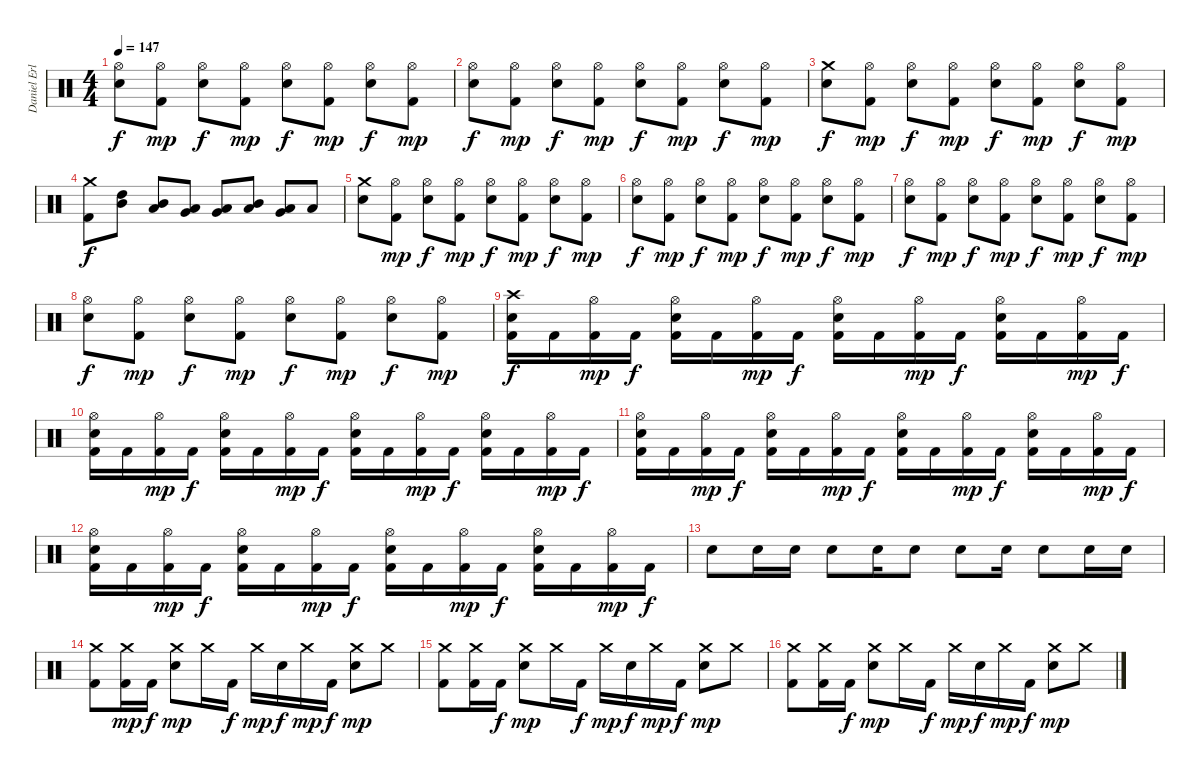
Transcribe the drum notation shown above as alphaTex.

\track ("Daniel Erlandsson" "Daniel Erl") {instrument percussion}
\staff {score}
\articulation defaults
\ts (4 4)
\tempo 147
\clef neutral
\ks c
("Hi-Hat (open)" "Electric Snare (hit)").8{dy f} ("Hi-Hat (open)" "Kick (hit) 2").8{dy mp} ("Hi-Hat (open)" "Electric Snare (hit)").8{dy f} ("Hi-Hat (open)" "Kick (hit) 2").8{dy mp} ("Hi-Hat (open)" "Electric Snare (hit)").8{dy f} ("Hi-Hat (open)" "Kick (hit) 2").8{dy mp} ("Hi-Hat (open)" "Electric Snare (hit)").8{dy f} ("Hi-Hat (open)" "Kick (hit) 2").8{dy mp} |
("Hi-Hat (open)" "Electric Snare (hit)").8{dy f} ("Hi-Hat (open)" "Kick (hit) 2").8{dy mp} ("Hi-Hat (open)" "Electric Snare (hit)").8{dy f} ("Hi-Hat (open)" "Kick (hit) 2").8{dy mp} ("Hi-Hat (open)" "Electric Snare (hit)").8{dy f} ("Hi-Hat (open)" "Kick (hit) 2").8{dy mp} ("Hi-Hat (open)" "Electric Snare (hit)").8{dy f} ("Hi-Hat (open)" "Kick (hit) 2").8{dy mp} |
("Crash medium (hit)" "Electric Snare (hit)").8{dy f} ("Hi-Hat (open)" "Kick (hit) 2").8{dy mp} ("Hi-Hat (open)" "Electric Snare (hit)").8{dy f} ("Hi-Hat (open)" "Kick (hit) 2").8{dy mp} ("Hi-Hat (open)" "Electric Snare (hit)").8{dy f} ("Hi-Hat (open)" "Kick (hit) 2").8{dy mp} ("Hi-Hat (open)" "Electric Snare (hit)").8{dy f} ("Hi-Hat (open)" "Kick (hit) 2").8{dy mp} |
("Crash medium (hit)" "Kick (hit) 2").8{dy f} ("High Tom (hit)" "Mid Tom (hit)").8 ("Mid Tom (hit)" "Low Tom (hit)").8 ("Low Tom (hit)" "Very Low Tom (hit)").8 ("Very Low Tom (hit)" "Low Floor Tom (hit)").8 ("Mid Tom (hit)" "Low Tom (hit)").8 ("Low Tom (hit)" "Very Low Tom (hit)").8 "Low Floor Tom (hit)".8 |
("Crash medium (hit)" "Electric Snare (hit)").8 ("Hi-Hat (open)" "Kick (hit) 2").8{dy mp} ("Hi-Hat (open)" "Electric Snare (hit)").8{dy f} ("Hi-Hat (open)" "Kick (hit) 2").8{dy mp} ("Hi-Hat (open)" "Electric Snare (hit)").8{dy f} ("Hi-Hat (open)" "Kick (hit) 2").8{dy mp} ("Hi-Hat (open)" "Electric Snare (hit)").8{dy f} ("Hi-Hat (open)" "Kick (hit) 2").8{dy mp} |
("Hi-Hat (open)" "Electric Snare (hit)").8{dy f} ("Hi-Hat (open)" "Kick (hit) 2").8{dy mp} ("Hi-Hat (open)" "Electric Snare (hit)").8{dy f} ("Hi-Hat (open)" "Kick (hit) 2").8{dy mp} ("Hi-Hat (open)" "Electric Snare (hit)").8{dy f} ("Hi-Hat (open)" "Kick (hit) 2").8{dy mp} ("Hi-Hat (open)" "Electric Snare (hit)").8{dy f} ("Hi-Hat (open)" "Kick (hit) 2").8{dy mp} |
("Hi-Hat (open)" "Electric Snare (hit)").8{dy f} ("Hi-Hat (open)" "Kick (hit) 2").8{dy mp} ("Hi-Hat (open)" "Electric Snare (hit)").8{dy f} ("Hi-Hat (open)" "Kick (hit) 2").8{dy mp} ("Hi-Hat (open)" "Electric Snare (hit)").8{dy f} ("Hi-Hat (open)" "Kick (hit) 2").8{dy mp} ("Hi-Hat (open)" "Electric Snare (hit)").8{dy f} ("Hi-Hat (open)" "Kick (hit) 2").8{dy mp} |
("Hi-Hat (open)" "Electric Snare (hit)").8{dy f} ("Hi-Hat (open)" "Kick (hit) 2").8{dy mp} ("Hi-Hat (open)" "Electric Snare (hit)").8{dy f} ("Hi-Hat (open)" "Kick (hit) 2").8{dy mp} ("Hi-Hat (open)" "Electric Snare (hit)").8{dy f} ("Hi-Hat (open)" "Kick (hit) 2").8{dy mp} ("Hi-Hat (open)" "Electric Snare (hit)").8{dy f} ("Hi-Hat (open)" "Kick (hit) 2").8{dy mp} |
("Crash high (hit)" "Electric Snare (hit)" "Kick (hit) 2").16{dy f} "Kick (hit) 2".16 ("Hi-Hat (open)" "Kick (hit) 2").16{dy mp} "Kick (hit) 2".16{dy f} ("Hi-Hat (open)" "Electric Snare (hit)" "Kick (hit) 2").16 "Kick (hit) 2".16 ("Hi-Hat (open)" "Kick (hit) 2").16{dy mp} "Kick (hit) 2".16{dy f} ("Hi-Hat (open)" "Electric Snare (hit)" "Kick (hit) 2").16 "Kick (hit) 2".16 ("Hi-Hat (open)" "Kick (hit) 2").16{dy mp} "Kick (hit) 2".16{dy f} ("Hi-Hat (open)" "Electric Snare (hit)" "Kick (hit) 2").16 "Kick (hit) 2".16 ("Hi-Hat (open)" "Kick (hit) 2").16{dy mp} "Kick (hit) 2".16{dy f} |
("Hi-Hat (open)" "Electric Snare (hit)" "Kick (hit) 2").16 "Kick (hit) 2".16 ("Hi-Hat (open)" "Kick (hit) 2").16{dy mp} "Kick (hit) 2".16{dy f} ("Hi-Hat (open)" "Electric Snare (hit)" "Kick (hit) 2").16 "Kick (hit) 2".16 ("Hi-Hat (open)" "Kick (hit) 2").16{dy mp} "Kick (hit) 2".16{dy f} ("Hi-Hat (open)" "Electric Snare (hit)" "Kick (hit) 2").16 "Kick (hit) 2".16 ("Hi-Hat (open)" "Kick (hit) 2").16{dy mp} "Kick (hit) 2".16{dy f} ("Hi-Hat (open)" "Electric Snare (hit)" "Kick (hit) 2").16 "Kick (hit) 2".16 ("Hi-Hat (open)" "Kick (hit) 2").16{dy mp} "Kick (hit) 2".16{dy f} |
("Hi-Hat (open)" "Electric Snare (hit)" "Kick (hit) 2").16 "Kick (hit) 2".16 ("Hi-Hat (open)" "Kick (hit) 2").16{dy mp} "Kick (hit) 2".16{dy f} ("Hi-Hat (open)" "Electric Snare (hit)" "Kick (hit) 2").16 "Kick (hit) 2".16 ("Hi-Hat (open)" "Kick (hit) 2").16{dy mp} "Kick (hit) 2".16{dy f} ("Hi-Hat (open)" "Electric Snare (hit)" "Kick (hit) 2").16 "Kick (hit) 2".16 ("Hi-Hat (open)" "Kick (hit) 2").16{dy mp} "Kick (hit) 2".16{dy f} ("Hi-Hat (open)" "Electric Snare (hit)" "Kick (hit) 2").16 "Kick (hit) 2".16 ("Hi-Hat (open)" "Kick (hit) 2").16{dy mp} "Kick (hit) 2".16{dy f} |
("Hi-Hat (open)" "Electric Snare (hit)" "Kick (hit) 2").16 "Kick (hit) 2".16 ("Hi-Hat (open)" "Kick (hit) 2").16{dy mp} "Kick (hit) 2".16{dy f} ("Hi-Hat (open)" "Electric Snare (hit)" "Kick (hit) 2").16 "Kick (hit) 2".16 ("Hi-Hat (open)" "Kick (hit) 2").16{dy mp} "Kick (hit) 2".16{dy f} ("Hi-Hat (open)" "Electric Snare (hit)" "Kick (hit) 2").16 "Kick (hit) 2".16 ("Hi-Hat (open)" "Kick (hit) 2").16{dy mp} "Kick (hit) 2".16{dy f} ("Hi-Hat (open)" "Electric Snare (hit)" "Kick (hit) 2").16 "Kick (hit) 2".16 ("Hi-Hat (open)" "Kick (hit) 2").16{dy mp} "Kick (hit) 2".16{dy f} |
"Electric Snare (hit)".8 "Electric Snare (hit)".16 "Electric Snare (hit)".16 "Electric Snare (hit)".8 "Electric Snare (hit)".16 "Electric Snare (hit)".8 "Electric Snare (hit)".8 "Electric Snare (hit)".16 "Electric Snare (hit)".8 "Electric Snare (hit)".16 "Electric Snare (hit)".16 |
("Crash medium (hit)" "Kick (hit) 2").8 ("Crash medium (hit)" "Kick (hit) 2").16{dy mp} "Kick (hit) 2".16{dy f} ("Crash medium (hit)" "Electric Snare (hit)").8{dy mp} "Crash medium (hit)".16 "Kick (hit) 2".16{dy f} "Crash medium (hit)".16{dy mp} "Electric Snare (hit)".16{dy f} "Crash medium (hit)".16{dy mp} "Kick (hit) 2".16{dy f} ("Crash medium (hit)" "Electric Snare (hit)").8{dy mp} "Crash medium (hit)".8 |
("Crash medium (hit)" "Kick (hit) 2").8 ("Crash medium (hit)" "Kick (hit) 2").16 "Kick (hit) 2".16{dy f} ("Crash medium (hit)" "Electric Snare (hit)").8{dy mp} "Crash medium (hit)".16 "Kick (hit) 2".16{dy f} "Crash medium (hit)".16{dy mp} "Electric Snare (hit)".16{dy f} "Crash medium (hit)".16{dy mp} "Kick (hit) 2".16{dy f} ("Crash medium (hit)" "Electric Snare (hit)").8{dy mp} "Crash medium (hit)".8 |
("Crash medium (hit)" "Kick (hit) 2").8 ("Crash medium (hit)" "Kick (hit) 2").16 "Kick (hit) 2".16{dy f} ("Crash medium (hit)" "Electric Snare (hit)").8{dy mp} "Crash medium (hit)".16 "Kick (hit) 2".16{dy f} "Crash medium (hit)".16{dy mp} "Electric Snare (hit)".16{dy f} "Crash medium (hit)".16{dy mp} "Kick (hit) 2".16{dy f} ("Crash medium (hit)" "Electric Snare (hit)").8{dy mp} "Crash medium (hit)".8
